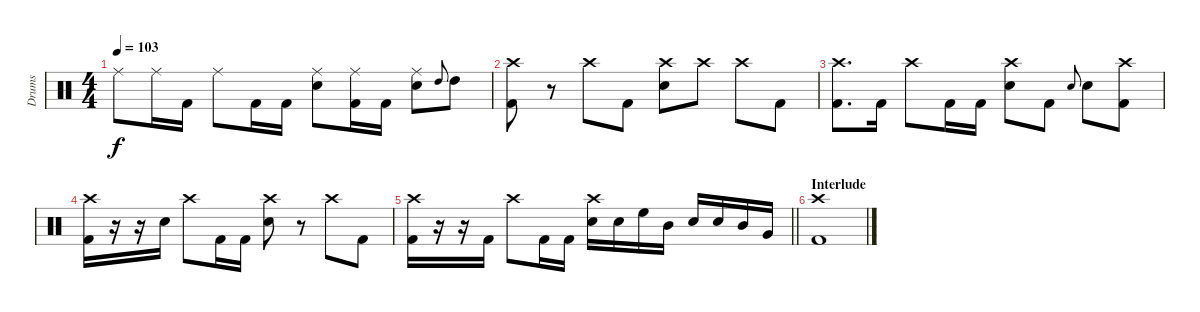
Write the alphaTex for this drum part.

\track ("Drums" "Drums") {instrument percussion}
\staff {score}
\articulation defaults
\ts (4 4)
\tempo 103
\clef neutral
\ks c "Ride (middle)".8{dy f} "Ride (middle)".16 "Kick (hit) 2".16 "Ride (middle)".8 "Kick (hit) 2".16 "Kick (hit) 2".16
("Ride (middle)" "Snare (hit) 2").8 ("Ride (middle)" "Kick (hit) 2").16 "Kick (hit) 2".16 ("Ride (middle)" "Snare (hit) 2").8 "High Tom (hit)".8{gr onbeat} "High Tom (hit)".8 |
("Crash high (hit)" "Kick (hit) 2").8 r.8 "Crash high (hit)".8 "Kick (hit) 2".8 ("Crash high (hit)" "Snare (hit) 2").8 "Crash high (hit)".8 "Crash high (hit)".8 "Kick (hit) 2".8 |
("Kick (hit) 2" "Crash high (hit)").8{d} "Kick (hit) 2".16 "Crash high (hit)".8 "Kick (hit) 2".16 "Kick (hit) 2".16 ("Crash high (hit)" "Snare (hit) 2").8 "Kick (hit) 2".8 "Snare (hit) 2".8{gr onbeat} "Snare (hit) 2".8 ("Kick (hit) 2" "Crash high (hit)").8 |
("Crash high (hit)" "Kick (hit) 2").16 r.16 r.16 "Snare (hit) 2".16 "Crash high (hit)".8 "Kick (hit) 2".16 "Kick (hit) 2".16 ("Crash high (hit)" "Snare (hit) 2").8 r.8 "Crash high (hit)".8 "Kick (hit) 2".8 |
\barLineRight lightlight
("Kick (hit) 2" "Crash high (hit)").16 r.16 r.16 "Kick (hit) 2".16 "Crash high (hit)".8 "Kick (hit) 2".16 "Kick (hit) 2".16 ("Snare (hit) 2" "Crash high (hit)").16 "Snare (hit) 2".16 "High Floor Tom (hit)".16 "Mid Tom (hit)".16 "Snare (hit) 2".16 "Snare (hit) 2".16 "Mid Tom (hit)".16 "Very Low Tom (hit)".16 |
\section ("" "Interlude")
("Crash high (hit)" "Kick (hit) 2").1
